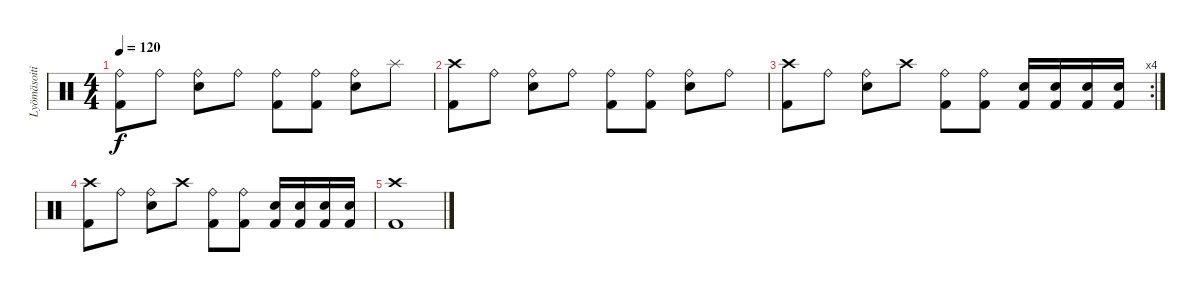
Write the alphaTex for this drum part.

\track ("Lyömäsoitin" "Lyömäsoiti") {instrument percussion}
\staff {score}
\articulation defaults
\ts (4 4)
\tempo 120
\clef neutral
\ks c
("Ride (bell)" "Kick (hit) 2").8{dy f} "Ride (bell)".8 ("Ride (bell)" "Snare (hit) 2").8 "Ride (bell)".8 ("Ride (bell)" "Kick (hit) 2").8 ("Ride (bell)" "Kick (hit) 2").8 ("Ride (bell)" "Snare (hit) 2").8 "Splash (hit)".8 |
("Crash high (hit)" "Kick (hit) 2").8 "Ride (bell)".8 ("Ride (bell)" "Snare (hit) 2").8 "Ride (bell)".8 ("Ride (bell)" "Kick (hit) 2").8 ("Ride (bell)" "Kick (hit) 2").8 ("Ride (bell)" "Snare (hit) 2").8 "Ride (bell)".8 |
\rc 4
("Crash high (hit)" "Kick (hit) 2").8 "Ride (bell)".8 ("Ride (bell)" "Snare (hit) 2").8 "Crash high (hit)".8 ("Ride (bell)" "Kick (hit) 2").8 ("Ride (bell)" "Kick (hit) 2").8 ("Snare (hit) 2" "Kick (hit) 2").16 ("Snare (hit) 2" "Kick (hit) 2").16 ("Snare (hit) 2" "Kick (hit) 2").16 ("Snare (hit) 2" "Kick (hit) 2").16 |
("Crash high (hit)" "Kick (hit) 2").8 "Ride (bell)".8 ("Ride (bell)" "Snare (hit) 2").8 "Crash high (hit)".8 ("Ride (bell)" "Kick (hit) 2").8 ("Ride (bell)" "Kick (hit) 2").8 ("Snare (hit) 2" "Kick (hit) 2").16 ("Snare (hit) 2" "Kick (hit) 2").16 ("Snare (hit) 2" "Kick (hit) 2").16 ("Snare (hit) 2" "Kick (hit) 2").16 |
("Crash high (hit)" "Kick (hit) 2").1
